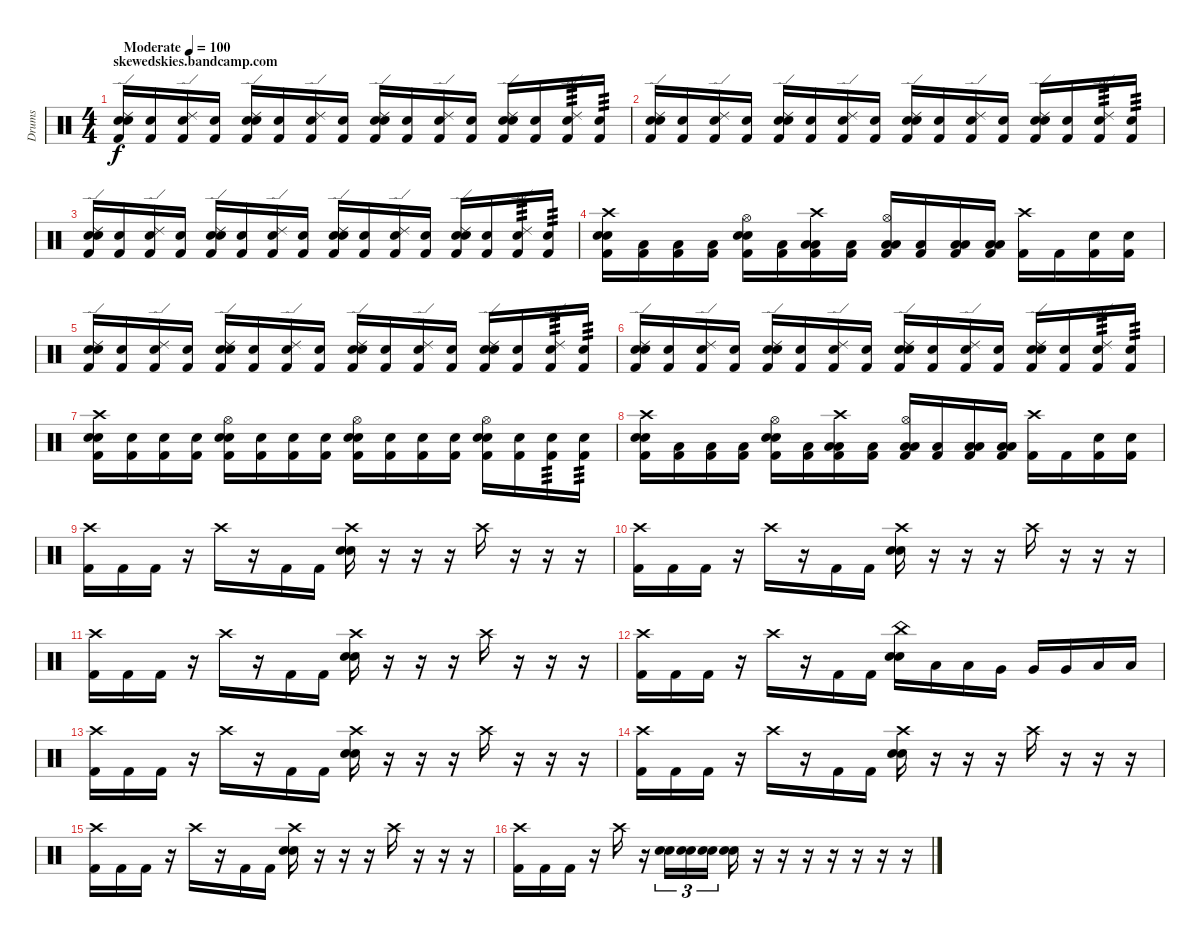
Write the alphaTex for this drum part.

\track ("Drums" "Drums") {instrument percussion}
\staff {score}
\articulation defaults
\ts (4 4)
\section ("" "skewedskies.bandcamp.com")
\tempo (100 "Moderate")
\tempo 145
\tempo (100 "Moderate")
\clef neutral
\ks c
("Ride (edge) 2" "Electric Snare (hit)" "Electric Snare (hit)" "Kick (hit) 2").16{dy f} ("Electric Snare (hit)" "Kick (hit) 2").16 ("Ride (edge) 2" "Electric Snare (hit)" "Kick (hit) 2").16 ("Electric Snare (hit)" "Kick (hit) 2").16 ("Ride (edge) 2" "Electric Snare (hit)" "Electric Snare (hit)" "Kick (hit) 2").16 ("Electric Snare (hit)" "Kick (hit) 2").16 ("Ride (edge) 2" "Electric Snare (hit)" "Kick (hit) 2").16 ("Electric Snare (hit)" "Kick (hit) 2").16 ("Ride (edge) 2" "Electric Snare (hit)" "Electric Snare (hit)" "Kick (hit) 2").16 ("Electric Snare (hit)" "Kick (hit) 2").16 ("Ride (edge) 2" "Electric Snare (hit)" "Kick (hit) 2").16 ("Electric Snare (hit)" "Kick (hit) 2").16 ("Ride (edge) 2" "Electric Snare (hit)" "Electric Snare (hit)" "Kick (hit) 2").16 ("Electric Snare (hit)" "Kick (hit) 2").16 ("Ride (edge) 2" "Electric Snare (hit)" "Kick (hit) 2").16{tp 3} ("Electric Snare (hit)" "Kick (hit) 2").16{tp 3} |
("Ride (edge) 2" "Electric Snare (hit)" "Electric Snare (hit)" "Kick (hit) 2").16 ("Electric Snare (hit)" "Kick (hit) 2").16 ("Ride (edge) 2" "Electric Snare (hit)" "Kick (hit) 2").16 ("Electric Snare (hit)" "Kick (hit) 2").16 ("Ride (edge) 2" "Electric Snare (hit)" "Electric Snare (hit)" "Kick (hit) 2").16 ("Electric Snare (hit)" "Kick (hit) 2").16 ("Ride (edge) 2" "Electric Snare (hit)" "Kick (hit) 2").16 ("Electric Snare (hit)" "Kick (hit) 2").16 ("Ride (edge) 2" "Electric Snare (hit)" "Electric Snare (hit)" "Kick (hit) 2").16 ("Electric Snare (hit)" "Kick (hit) 2").16 ("Ride (edge) 2" "Electric Snare (hit)" "Kick (hit) 2").16 ("Electric Snare (hit)" "Kick (hit) 2").16 ("Ride (edge) 2" "Electric Snare (hit)" "Electric Snare (hit)" "Kick (hit) 2").16 ("Electric Snare (hit)" "Kick (hit) 2").16 ("Ride (edge) 2" "Electric Snare (hit)" "Kick (hit) 2").16{tp 3} ("Electric Snare (hit)" "Kick (hit) 2").16{tp 3} |
("Ride (edge) 2" "Electric Snare (hit)" "Electric Snare (hit)" "Kick (hit) 2").16 ("Electric Snare (hit)" "Kick (hit) 2").16 ("Ride (edge) 2" "Electric Snare (hit)" "Kick (hit) 2").16 ("Electric Snare (hit)" "Kick (hit) 2").16 ("Ride (edge) 2" "Electric Snare (hit)" "Electric Snare (hit)" "Kick (hit) 2").16 ("Electric Snare (hit)" "Kick (hit) 2").16 ("Ride (edge) 2" "Electric Snare (hit)" "Kick (hit) 2").16 ("Electric Snare (hit)" "Kick (hit) 2").16 ("Ride (edge) 2" "Electric Snare (hit)" "Electric Snare (hit)" "Kick (hit) 2").16 ("Electric Snare (hit)" "Kick (hit) 2").16 ("Ride (edge) 2" "Electric Snare (hit)" "Kick (hit) 2").16 ("Electric Snare (hit)" "Kick (hit) 2").16 ("Ride (edge) 2" "Electric Snare (hit)" "Electric Snare (hit)" "Kick (hit) 2").16 ("Electric Snare (hit)" "Kick (hit) 2").16 ("Ride (edge) 2" "Electric Snare (hit)" "Kick (hit) 2").16{tp 3} ("Electric Snare (hit)" "Kick (hit) 2").16{tp 3} |
("Crash high (hit)" "Electric Snare (hit)" "Electric Snare (hit)" "Kick (hit) 2").16 ("Low Tom (hit)" "Kick (hit) 2").16 ("Low Tom (hit)" "Kick (hit) 2").16 ("Low Tom (hit)" "Kick (hit) 2").16 ("Hi-Hat (open)" "Electric Snare (hit)" "Electric Snare (hit)" "Kick (hit) 2").16 ("Low Floor Tom (hit)" "Kick (hit) 2").16 ("Crash high (hit)" "Low Tom (hit)" "Low Tom (hit)" "Kick (hit) 2").16 ("Low Floor Tom (hit)" "Kick (hit) 2").16 ("Hi-Hat (open)" "Low Floor Tom (hit)" "Low Tom (hit)" "Kick (hit) 2").16 ("Low Floor Tom (hit)" "Kick (hit) 2").16 ("Low Tom (hit)" "Low Floor Tom (hit)" "Kick (hit) 2").16 ("Low Tom (hit)" "Low Floor Tom (hit)" "Kick (hit) 2").16 ("Crash high (hit)" "Kick (hit) 2").16 "Kick (hit) 2".16 ("Electric Snare (hit)" "Kick (hit) 2").16 ("Electric Snare (hit)" "Kick (hit) 2").16 |
("Ride (edge) 2" "Electric Snare (hit)" "Electric Snare (hit)" "Kick (hit) 2").16 ("Electric Snare (hit)" "Kick (hit) 2").16 ("Ride (edge) 2" "Electric Snare (hit)" "Kick (hit) 2").16 ("Electric Snare (hit)" "Kick (hit) 2").16 ("Ride (edge) 2" "Electric Snare (hit)" "Electric Snare (hit)" "Kick (hit) 2").16 ("Electric Snare (hit)" "Kick (hit) 2").16 ("Ride (edge) 2" "Electric Snare (hit)" "Kick (hit) 2").16 ("Electric Snare (hit)" "Kick (hit) 2").16 ("Ride (edge) 2" "Electric Snare (hit)" "Electric Snare (hit)" "Kick (hit) 2").16 ("Electric Snare (hit)" "Kick (hit) 2").16 ("Ride (edge) 2" "Electric Snare (hit)" "Kick (hit) 2").16 ("Electric Snare (hit)" "Kick (hit) 2").16 ("Ride (edge) 2" "Electric Snare (hit)" "Electric Snare (hit)" "Kick (hit) 2").16 ("Electric Snare (hit)" "Kick (hit) 2").16 ("Ride (edge) 2" "Electric Snare (hit)" "Kick (hit) 2").16{tp 3} ("Electric Snare (hit)" "Kick (hit) 2").16{tp 3} |
("Ride (edge) 2" "Electric Snare (hit)" "Electric Snare (hit)" "Kick (hit) 2").16 ("Electric Snare (hit)" "Kick (hit) 2").16 ("Ride (edge) 2" "Electric Snare (hit)" "Kick (hit) 2").16 ("Electric Snare (hit)" "Kick (hit) 2").16 ("Ride (edge) 2" "Electric Snare (hit)" "Electric Snare (hit)" "Kick (hit) 2").16 ("Electric Snare (hit)" "Kick (hit) 2").16 ("Ride (edge) 2" "Electric Snare (hit)" "Kick (hit) 2").16 ("Electric Snare (hit)" "Kick (hit) 2").16 ("Ride (edge) 2" "Electric Snare (hit)" "Electric Snare (hit)" "Kick (hit) 2").16 ("Electric Snare (hit)" "Kick (hit) 2").16 ("Ride (edge) 2" "Electric Snare (hit)" "Kick (hit) 2").16 ("Electric Snare (hit)" "Kick (hit) 2").16 ("Ride (edge) 2" "Electric Snare (hit)" "Electric Snare (hit)" "Kick (hit) 2").16 ("Electric Snare (hit)" "Kick (hit) 2").16 ("Ride (edge) 2" "Electric Snare (hit)" "Kick (hit) 2").16{tp 3} ("Electric Snare (hit)" "Kick (hit) 2").16{tp 3} |
("Crash high (hit)" "Electric Snare (hit)" "Electric Snare (hit)" "Kick (hit) 2").16 ("Electric Snare (hit)" "Kick (hit) 2").16 ("Electric Snare (hit)" "Kick (hit) 2").16 ("Electric Snare (hit)" "Kick (hit) 2").16 ("Hi-Hat (open)" "Electric Snare (hit)" "Electric Snare (hit)" "Kick (hit) 2").16 ("Electric Snare (hit)" "Kick (hit) 2").16 ("Electric Snare (hit)" "Kick (hit) 2").16 ("Electric Snare (hit)" "Kick (hit) 2").16 ("Hi-Hat (open)" "Electric Snare (hit)" "Electric Snare (hit)" "Kick (hit) 2").16 ("Electric Snare (hit)" "Kick (hit) 2").16 ("Electric Snare (hit)" "Kick (hit) 2").16 ("Electric Snare (hit)" "Kick (hit) 2").16 ("Hi-Hat (open)" "Electric Snare (hit)" "Electric Snare (hit)" "Kick (hit) 2").16 ("Electric Snare (hit)" "Kick (hit) 2").16 ("Electric Snare (hit)" "Kick (hit) 2").16{tp 3} ("Electric Snare (hit)" "Kick (hit) 2").16{tp 3} |
("Crash high (hit)" "Electric Snare (hit)" "Electric Snare (hit)" "Kick (hit) 2").16 ("Low Tom (hit)" "Kick (hit) 2").16 ("Low Tom (hit)" "Kick (hit) 2").16 ("Low Tom (hit)" "Kick (hit) 2").16 ("Hi-Hat (open)" "Electric Snare (hit)" "Electric Snare (hit)" "Kick (hit) 2").16 ("Low Floor Tom (hit)" "Kick (hit) 2").16 ("Crash high (hit)" "Low Tom (hit)" "Low Tom (hit)" "Kick (hit) 2").16 ("Low Floor Tom (hit)" "Kick (hit) 2").16 ("Hi-Hat (open)" "Low Floor Tom (hit)" "Low Tom (hit)" "Kick (hit) 2").16 ("Low Floor Tom (hit)" "Kick (hit) 2").16 ("Low Tom (hit)" "Low Floor Tom (hit)" "Kick (hit) 2").16 ("Low Tom (hit)" "Low Floor Tom (hit)" "Kick (hit) 2").16 ("Crash high (hit)" "Kick (hit) 2").16 "Kick (hit) 2".16 ("Electric Snare (hit)" "Kick (hit) 2").16 ("Electric Snare (hit)" "Kick (hit) 2").16 |
("Crash high (hit)" "Kick (hit) 2").16 "Kick (hit) 2".16 "Kick (hit) 2".16 r.16 "Crash high (hit)".16 r.16 "Kick (hit) 2".16 "Kick (hit) 2".16 ("Crash high (hit)" "Electric Snare (hit)" "Electric Snare (hit)").16 r.16 r.16 r.16 "Crash high (hit)".16 r.16 r.16 r.16 |
("Crash high (hit)" "Kick (hit) 2").16 "Kick (hit) 2".16 "Kick (hit) 2".16 r.16 "Crash high (hit)".16 r.16 "Kick (hit) 2".16 "Kick (hit) 2".16 ("Crash high (hit)" "Electric Snare (hit)" "Electric Snare (hit)").16 r.16 r.16 r.16 "Crash high (hit)".16 r.16 r.16 r.16 |
("Crash high (hit)" "Kick (hit) 2").16 "Kick (hit) 2".16 "Kick (hit) 2".16 r.16 "Crash high (hit)".16 r.16 "Kick (hit) 2".16 "Kick (hit) 2".16 ("Crash high (hit)" "Electric Snare (hit)" "Electric Snare (hit)").16 r.16 r.16 r.16 "Crash high (hit)".16 r.16 r.16 r.16 |
("Crash high (hit)" "Kick (hit) 2").16 "Kick (hit) 2".16 "Kick (hit) 2".16 r.16 "Crash high (hit)".16 r.16 "Kick (hit) 2".16 "Kick (hit) 2".16 ("China (hit)" "Electric Snare (hit)" "Electric Snare (hit)").16 "Low Tom (hit)".16 "Low Tom (hit)".16 "Very Low Tom (hit)".16 "Very Low Tom (hit)".16 "Very Low Tom (hit)".16 "Low Floor Tom (hit)".16 "Low Floor Tom (hit)".16 |
("Crash high (hit)" "Kick (hit) 2").16 "Kick (hit) 2".16 "Kick (hit) 2".16 r.16 "Crash high (hit)".16 r.16 "Kick (hit) 2".16 "Kick (hit) 2".16 ("Crash high (hit)" "Electric Snare (hit)" "Electric Snare (hit)").16 r.16 r.16 r.16 "Crash high (hit)".16 r.16 r.16 r.16 |
("Crash high (hit)" "Kick (hit) 2").16 "Kick (hit) 2".16 "Kick (hit) 2".16 r.16 "Crash high (hit)".16 r.16 "Kick (hit) 2".16 "Kick (hit) 2".16 ("Crash high (hit)" "Electric Snare (hit)" "Electric Snare (hit)").16 r.16 r.16 r.16 "Crash high (hit)".16 r.16 r.16 r.16 |
("Crash high (hit)" "Kick (hit) 2").16 "Kick (hit) 2".16 "Kick (hit) 2".16 r.16 "Crash high (hit)".16 r.16 "Kick (hit) 2".16 "Kick (hit) 2".16 ("Crash high (hit)" "Electric Snare (hit)" "Electric Snare (hit)").16 r.16 r.16 r.16 "Crash high (hit)".16 r.16 r.16 r.16 |
("Crash high (hit)" "Kick (hit) 2").16 "Kick (hit) 2".16 "Kick (hit) 2".16 r.16 "Crash high (hit)".16 r.16 ("Electric Snare (hit)" "Electric Snare (hit)").16{tu (3 2)} ("Electric Snare (hit)" "Electric Snare (hit)").16{tu (3 2)} ("Electric Snare (hit)" "Electric Snare (hit)").16{tu (3 2)} ("Electric Snare (hit)" "Electric Snare (hit)").16 r.16 r.16 r.16 r.16 r.16 r.16 r.16
